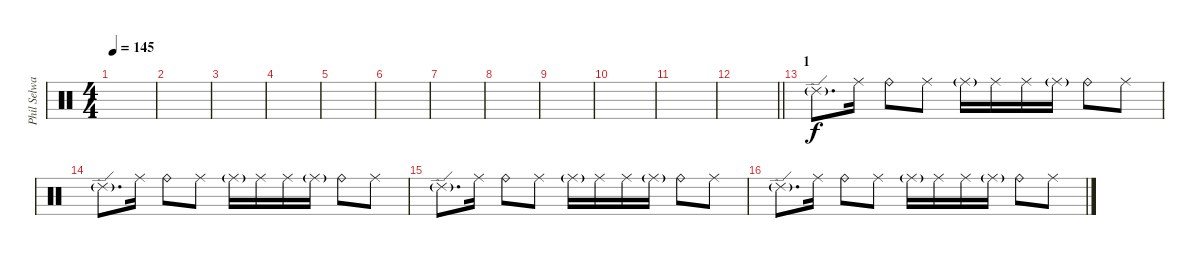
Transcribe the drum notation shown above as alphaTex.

\track ("Phil Selway" "Phil Selwa") {instrument percussion}
\staff {score}
\articulation defaults
\ts (4 4)
\tempo 145
\clef neutral
\ks c
|
|
|
|
|
|
|
|
|
|
|
\barLineRight lightlight
|
\section ("" "1")
"Ride (edge) 2"{g}.8{d} "Ride (middle)".16 "Ride (bell)".8 "Ride (middle)".8 "Ride (middle)"{g}.16 "Ride (middle)".16 "Ride (middle)".16 "Ride (middle)"{g}.16 "Ride (bell)".8 "Ride (middle)".8 |
"Ride (edge) 2"{g}.8{d} "Ride (middle)".16 "Ride (bell)".8 "Ride (middle)".8 "Ride (middle)"{g}.16 "Ride (middle)".16 "Ride (middle)".16 "Ride (middle)"{g}.16 "Ride (bell)".8 "Ride (middle)".8 |
"Ride (edge) 2"{g}.8{d} "Ride (middle)".16 "Ride (bell)".8 "Ride (middle)".8 "Ride (middle)"{g}.16 "Ride (middle)".16 "Ride (middle)".16 "Ride (middle)"{g}.16 "Ride (bell)".8 "Ride (middle)".8 |
"Ride (edge) 2"{g}.8{d} "Ride (middle)".16 "Ride (bell)".8 "Ride (middle)".8 "Ride (middle)"{g}.16 "Ride (middle)".16 "Ride (middle)".16 "Ride (middle)"{g}.16 "Ride (bell)".8 "Ride (middle)".8
